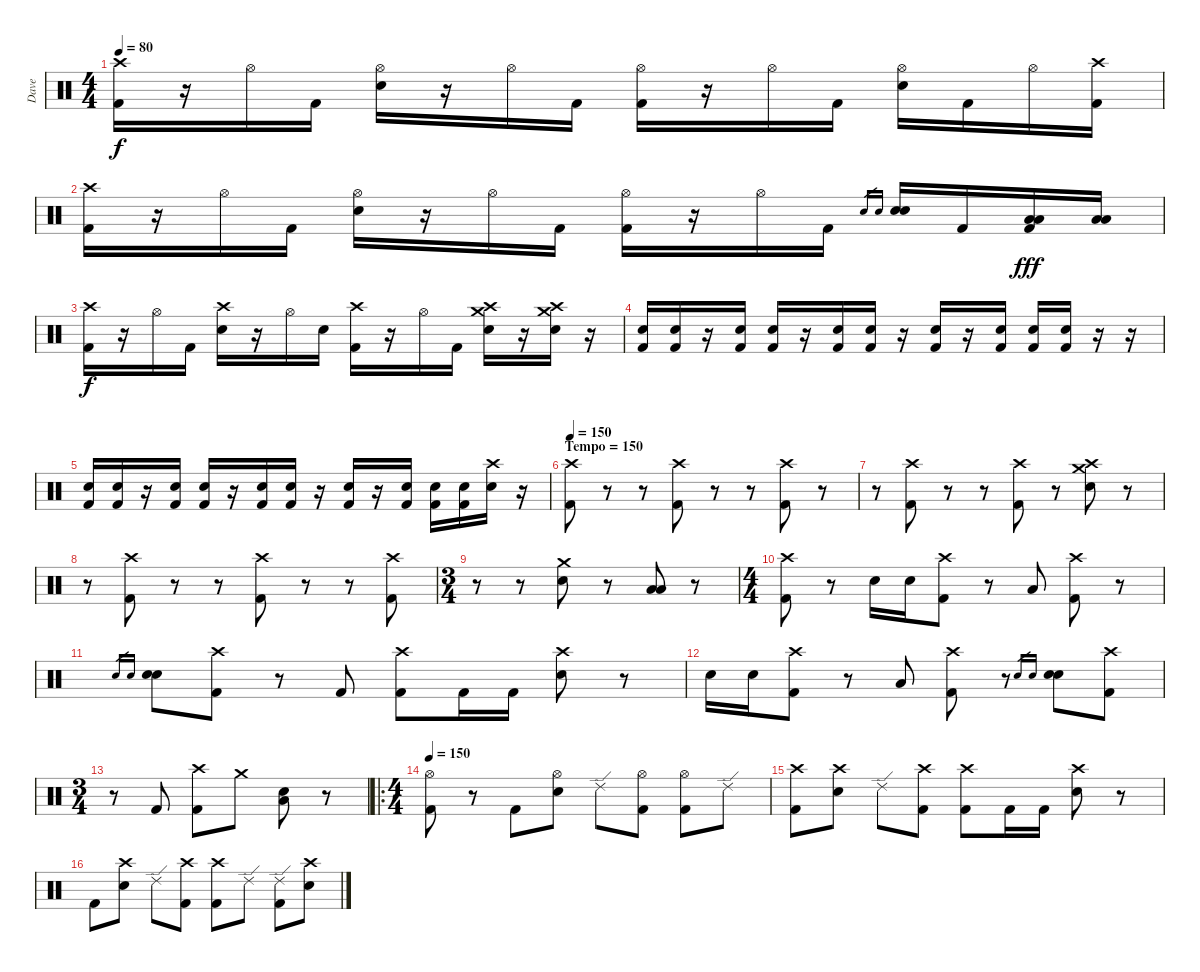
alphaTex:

\track ("Dave" "Dave") {instrument percussion}
\staff {score}
\articulation defaults
\ts (4 4)
\tempo 80
\clef neutral
\ks c
("Crash high (hit)" "Kick (hit) 2").16{dy f} r.16 "Hi-Hat (open)".16 "Kick (hit) 2".16 ("Hi-Hat (open)" "Electric Snare (hit)").16 r.16 "Hi-Hat (open)".16 "Kick (hit) 2".16 ("Hi-Hat (open)" "Kick (hit) 2").16 r.16 "Hi-Hat (open)".16 "Kick (hit) 2".16 ("Hi-Hat (open)" "Electric Snare (hit)").16 "Kick (hit) 2".16 "Hi-Hat (open)".16 ("Crash high (hit)" "Kick (hit) 2").16 |
("Crash high (hit)" "Kick (hit) 2").16 r.16 "Hi-Hat (open)".16 "Kick (hit) 2".16 ("Hi-Hat (open)" "Electric Snare (hit)").16 r.16 "Hi-Hat (open)".16 "Kick (hit) 2".16 ("Hi-Hat (open)" "Kick (hit) 2").16 r.16 "Hi-Hat (open)".16 "Kick (hit) 2".16 "Electric Snare (hit)".16{gr} "Electric Snare (hit)".16{gr} ("Electric Snare (hit)" "Electric Snare (hit)").16 "Kick (hit) 2".16 ("Low Tom (hit)" "Low Floor Tom (hit)" "Kick (hit) 2").16{dy fff} ("Low Tom (hit)" "Low Floor Tom (hit)").16 |
("Crash high (hit)" "Kick (hit) 2").16{dy f} r.16 "Hi-Hat (open)".16 "Kick (hit) 2".16 ("Crash high (hit)" "Electric Snare (hit)").16 r.16 "Hi-Hat (open)".16 "Electric Snare (hit)".16 ("Crash high (hit)" "Kick (hit) 2").16 r.16 "Hi-Hat (open)".16 "Kick (hit) 2".16 ("Crash high (hit)" "Crash medium (hit)" "Electric Snare (hit)").16 r.16 ("Crash high (hit)" "Crash medium (hit)" "Electric Snare (hit)").16 r.16 |
("Electric Snare (hit)" "Kick (hit) 2").16 ("Electric Snare (hit)" "Kick (hit) 2").16 r.16 ("Electric Snare (hit)" "Kick (hit) 2").16 ("Electric Snare (hit)" "Kick (hit) 2").16 r.16 ("Electric Snare (hit)" "Kick (hit) 2").16 ("Electric Snare (hit)" "Kick (hit) 2").16 r.16 ("Electric Snare (hit)" "Kick (hit) 2").16 r.16 ("Electric Snare (hit)" "Kick (hit) 2").16 ("Electric Snare (hit)" "Kick (hit) 2").16 ("Electric Snare (hit)" "Kick (hit) 2").16 r.16 r.16 |
("Electric Snare (hit)" "Kick (hit) 2").16 ("Electric Snare (hit)" "Kick (hit) 2").16 r.16 ("Electric Snare (hit)" "Kick (hit) 2").16 ("Electric Snare (hit)" "Kick (hit) 2").16 r.16 ("Electric Snare (hit)" "Kick (hit) 2").16 ("Electric Snare (hit)" "Kick (hit) 2").16 r.16 ("Electric Snare (hit)" "Kick (hit) 2").16 r.16 ("Electric Snare (hit)" "Kick (hit) 2").16 ("Electric Snare (hit)" "Kick (hit) 2").16 ("Electric Snare (hit)" "Kick (hit) 2").16 ("Crash high (hit)" "Electric Snare (hit)").16 r.16 |
\section ("" "Tempo = 150")
\tempo 150
("Crash high (hit)" "Kick (hit) 2").8 r.8 r.8 ("Crash high (hit)" "Kick (hit) 2").8 r.8 r.8 ("Crash high (hit)" "Kick (hit) 2").8 r.8 |
r.8 ("Crash high (hit)" "Kick (hit) 2").8 r.8 r.8 ("Crash high (hit)" "Kick (hit) 2").8 r.8 ("Crash high (hit)" "Crash medium (hit)" "Electric Snare (hit)").8 r.8 |
r.8 ("Crash high (hit)" "Kick (hit) 2").8 r.8 r.8 ("Crash high (hit)" "Kick (hit) 2").8 r.8 r.8 ("Crash high (hit)" "Kick (hit) 2").8 |
\ts (3 4)
r.8 r.8 ("Crash medium (hit)" "Electric Snare (hit)").8 r.8 ("Low Tom (hit)" "Low Floor Tom (hit)").8 r.8 |
\ts (4 4)
("Crash high (hit)" "Kick (hit) 2").8 r.8 "Electric Snare (hit)".16 "Electric Snare (hit)".16 ("Crash high (hit)" "Kick (hit) 2").8 r.8 "Low Tom (hit)".8 ("Crash high (hit)" "Kick (hit) 2").8 r.8 |
"Electric Snare (hit)".16{gr} "Electric Snare (hit)".16{gr} ("Electric Snare (hit)" "Electric Snare (hit)").8 ("Crash high (hit)" "Kick (hit) 2").8 r.8 "Kick (hit) 2".8 ("Crash high (hit)" "Kick (hit) 2").8 "Kick (hit) 2".16 "Kick (hit) 2".16 ("Crash high (hit)" "Electric Snare (hit)").8 r.8 |
"Electric Snare (hit)".16 "Electric Snare (hit)".16 ("Crash high (hit)" "Kick (hit) 2").8 r.8 "Low Tom (hit)".8 ("Crash high (hit)" "Kick (hit) 2").8 r.8 "Electric Snare (hit)".16{gr} "Electric Snare (hit)".16{gr} ("Electric Snare (hit)" "Electric Snare (hit)").8 ("Crash high (hit)" "Kick (hit) 2").8 |
\ts (3 4)
r.8 "Kick (hit) 2".8 ("Crash high (hit)" "Kick (hit) 2").8 "Crash medium (hit)".8 ("Electric Snare (hit)" "Low Floor Tom (hit)").8 r.8 |
\ro
\ts (4 4)
\tempo 150
("Hi-Hat (open)" "Kick (hit) 2").8 r.8 "Kick (hit) 2".8 ("Hi-Hat (open)" "Electric Snare (hit)").8 "Ride (edge) 2".8 ("Hi-Hat (open)" "Kick (hit) 2").8 ("Hi-Hat (open)" "Kick (hit) 2").8 "Ride (edge) 2".8 |
("Crash high (hit)" "Kick (hit) 2").8 ("Crash high (hit)" "Electric Snare (hit)").8 "Ride (edge) 2".8 ("Crash high (hit)" "Kick (hit) 2").8 ("Crash high (hit)" "Kick (hit) 2").8 "Kick (hit) 2".16 "Kick (hit) 2".16 ("Crash high (hit)" "Electric Snare (hit)").8 r.8 |
"Kick (hit) 2".8 ("Crash high (hit)" "Electric Snare (hit)").8 "Ride (edge) 2".8 ("Crash high (hit)" "Kick (hit) 2").8 ("Crash high (hit)" "Kick (hit) 2").8 "Ride (edge) 2".8 ("Ride (edge) 2" "Kick (hit) 2").8 ("Crash high (hit)" "Electric Snare (hit)").8
